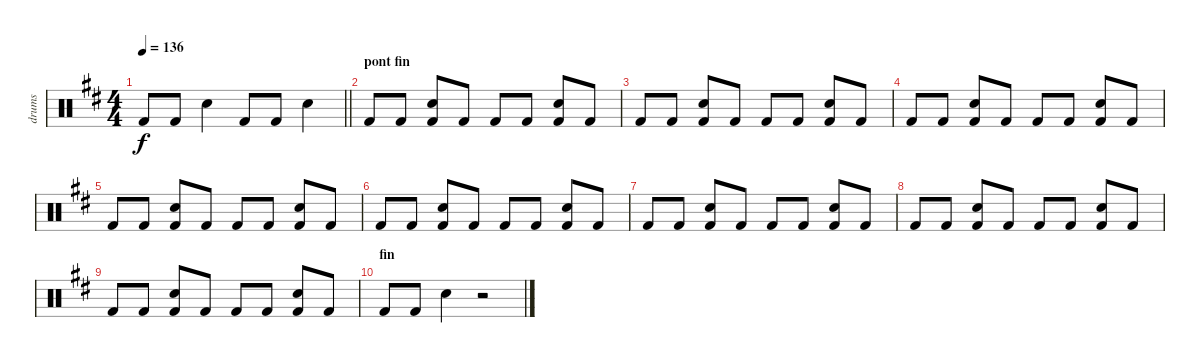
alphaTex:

\track ("drums" "drums") {instrument percussion}
\staff {score}
\articulation defaults
\ts (4 4)
\tempo 136
\clef neutral
\barLineRight lightlight
\ks d "Kick (hit) 2".8{dy f} "Kick (hit) 2".8 "Electric Snare (hit)".4 "Kick (hit) 2".8 "Kick (hit) 2".8 "Electric Snare (hit)".4
|
\section ("" "pont fin")
"Kick (hit) 2".8 "Kick (hit) 2".8 ("Electric Snare (hit)" "Kick (hit) 2").8 "Kick (hit) 2".8 "Kick (hit) 2".8 "Kick (hit) 2".8 ("Electric Snare (hit)" "Kick (hit) 2").8 "Kick (hit) 2".8 |
"Kick (hit) 2".8 "Kick (hit) 2".8 ("Electric Snare (hit)" "Kick (hit) 2").8 "Kick (hit) 2".8 "Kick (hit) 2".8 "Kick (hit) 2".8 ("Electric Snare (hit)" "Kick (hit) 2").8 "Kick (hit) 2".8 |
"Kick (hit) 2".8 "Kick (hit) 2".8 ("Electric Snare (hit)" "Kick (hit) 2").8 "Kick (hit) 2".8 "Kick (hit) 2".8 "Kick (hit) 2".8 ("Electric Snare (hit)" "Kick (hit) 2").8 "Kick (hit) 2".8 |
"Kick (hit) 2".8 "Kick (hit) 2".8 ("Electric Snare (hit)" "Kick (hit) 2").8 "Kick (hit) 2".8 "Kick (hit) 2".8 "Kick (hit) 2".8 ("Electric Snare (hit)" "Kick (hit) 2").8 "Kick (hit) 2".8 |
"Kick (hit) 2".8 "Kick (hit) 2".8 ("Electric Snare (hit)" "Kick (hit) 2").8 "Kick (hit) 2".8 "Kick (hit) 2".8 "Kick (hit) 2".8 ("Electric Snare (hit)" "Kick (hit) 2").8 "Kick (hit) 2".8 |
"Kick (hit) 2".8 "Kick (hit) 2".8 ("Electric Snare (hit)" "Kick (hit) 2").8 "Kick (hit) 2".8 "Kick (hit) 2".8 "Kick (hit) 2".8 ("Electric Snare (hit)" "Kick (hit) 2").8 "Kick (hit) 2".8 |
"Kick (hit) 2".8 "Kick (hit) 2".8 ("Electric Snare (hit)" "Kick (hit) 2").8 "Kick (hit) 2".8 "Kick (hit) 2".8 "Kick (hit) 2".8 ("Electric Snare (hit)" "Kick (hit) 2").8 "Kick (hit) 2".8 |
"Kick (hit) 2".8 "Kick (hit) 2".8 ("Electric Snare (hit)" "Kick (hit) 2").8 "Kick (hit) 2".8 "Kick (hit) 2".8 "Kick (hit) 2".8 ("Electric Snare (hit)" "Kick (hit) 2").8 "Kick (hit) 2".8 |
\section ("" "fin")
"Kick (hit) 2".8 "Kick (hit) 2".8 "Electric Snare (hit)".4 r.2
